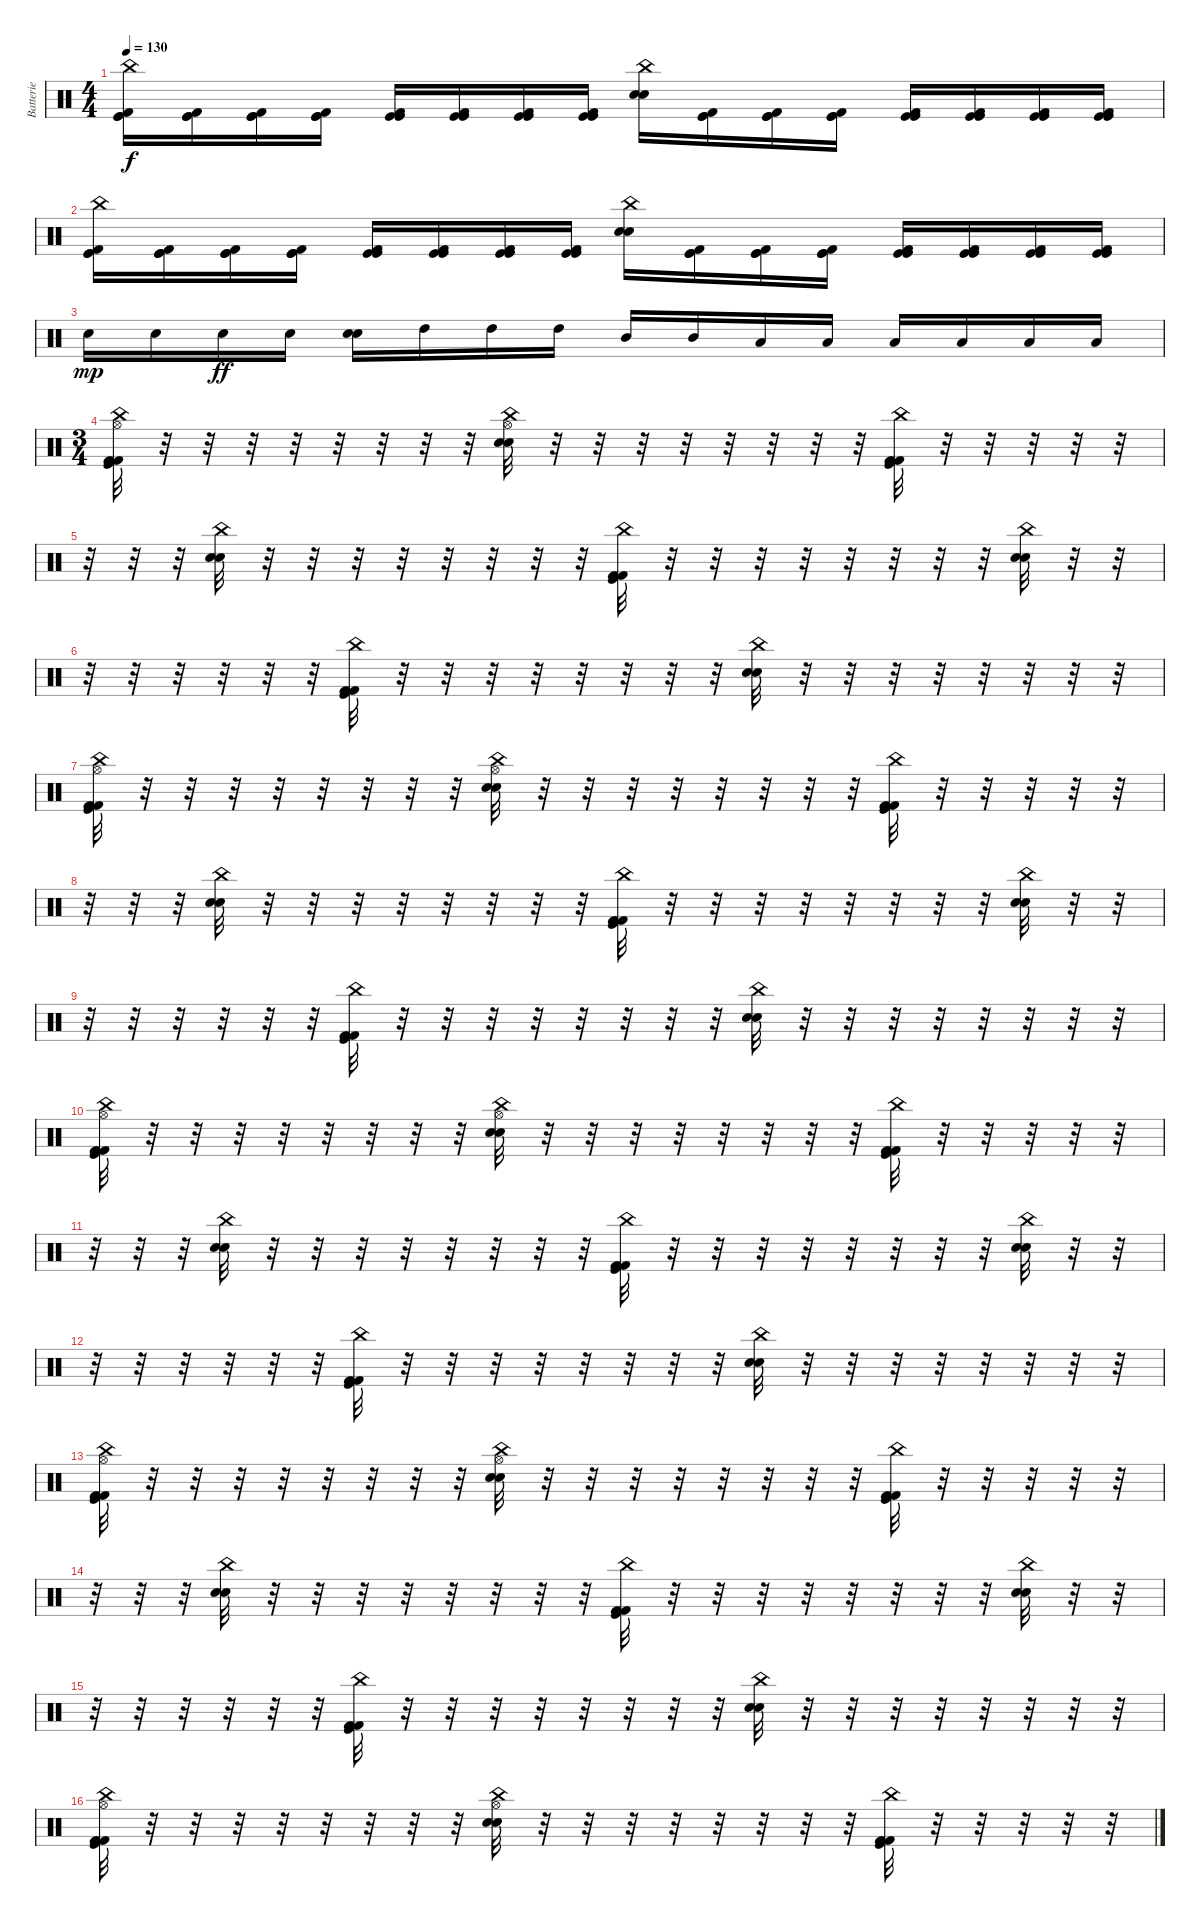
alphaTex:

\track ("Batterie" "Batterie") {instrument percussion}
\staff {score}
\articulation defaults
\ts (4 4)
\tempo 130
\clef neutral
\ks c
("China (hit)" "Kick (hit)" "Kick (hit) 2" "Kick (hit)").16{dy f} ("Kick (hit)" "Kick (hit)" "Kick (hit) 2").16 ("Kick (hit)" "Kick (hit) 2" "Kick (hit)").16 ("Kick (hit)" "Kick (hit)" "Kick (hit) 2").16 ("Kick (hit)" "Kick (hit) 2" "Kick (hit)").16 ("Kick (hit)" "Kick (hit)" "Kick (hit) 2").16 ("Kick (hit)" "Kick (hit) 2" "Kick (hit)").16 ("Kick (hit)" "Kick (hit)" "Kick (hit) 2").16 ("China (hit)" "Electric Snare (hit)" "Electric Snare (hit)").16 ("Kick (hit)" "Kick (hit)" "Kick (hit) 2").16 ("Kick (hit)" "Kick (hit) 2" "Kick (hit)").16 ("Kick (hit)" "Kick (hit)" "Kick (hit) 2").16 ("Kick (hit)" "Kick (hit) 2" "Kick (hit)").16 ("Kick (hit)" "Kick (hit)" "Kick (hit) 2").16 ("Kick (hit)" "Kick (hit) 2" "Kick (hit)").16 ("Kick (hit)" "Kick (hit) 2" "Kick (hit)").16 |
("China (hit)" "Kick (hit)" "Kick (hit) 2" "Kick (hit)").16 ("Kick (hit)" "Kick (hit)" "Kick (hit) 2").16 ("Kick (hit)" "Kick (hit) 2" "Kick (hit)").16 ("Kick (hit)" "Kick (hit)" "Kick (hit) 2").16 ("Kick (hit)" "Kick (hit) 2" "Kick (hit)").16 ("Kick (hit)" "Kick (hit)" "Kick (hit) 2").16 ("Kick (hit)" "Kick (hit) 2" "Kick (hit)").16 ("Kick (hit)" "Kick (hit)" "Kick (hit) 2").16 ("China (hit)" "Electric Snare (hit)" "Electric Snare (hit)").16 ("Kick (hit)" "Kick (hit)" "Kick (hit) 2").16 ("Kick (hit)" "Kick (hit) 2" "Kick (hit)").16 ("Kick (hit)" "Kick (hit)" "Kick (hit) 2").16 ("Kick (hit)" "Kick (hit) 2" "Kick (hit)").16 ("Kick (hit)" "Kick (hit)" "Kick (hit) 2").16 ("Kick (hit)" "Kick (hit) 2" "Kick (hit)").16 ("Kick (hit)" "Kick (hit) 2" "Kick (hit)").16 |
"Electric Snare (hit)".16{dy mp} "Electric Snare (hit)".16 "Electric Snare (hit)".16{dy ff} "Electric Snare (hit)".16 ("Electric Snare (hit)" "Electric Snare (hit)").16 "High Tom (hit)".16 "High Tom (hit)".16 "High Tom (hit)".16 "Mid Tom (hit)".16 "Mid Tom (hit)".16 "Low Tom (hit)".16 "Low Tom (hit)".16 "Low Floor Tom (hit)".16 "Low Floor Tom (hit)".16 "Low Floor Tom (hit)".16 "Low Floor Tom (hit)".16 |
\ts (3 4)
("China (hit)" "Hi-Hat (open)" "Kick (hit) 2" "Kick (hit)" "Kick (hit) 2").32 r.32 r.32 r.32 r.32 r.32 r.32 r.32 r.32 ("China (hit)" "Hi-Hat (open)" "Electric Snare (hit)" "Electric Snare (hit)").32 r.32 r.32 r.32 r.32 r.32 r.32 r.32 r.32 ("China (hit)" "Kick (hit) 2" "Kick (hit)" "Kick (hit) 2").32 r.32 r.32 r.32 r.32 r.32 |
r.32 r.32 r.32 ("China (hit)" "Electric Snare (hit)" "Electric Snare (hit)").32 r.32 r.32 r.32 r.32 r.32 r.32 r.32 r.32 ("China (hit)" "Kick (hit) 2" "Kick (hit)" "Kick (hit) 2").32 r.32 r.32 r.32 r.32 r.32 r.32 r.32 r.32 ("China (hit)" "Electric Snare (hit)" "Electric Snare (hit)").32 r.32 r.32 |
r.32 r.32 r.32 r.32 r.32 r.32 ("China (hit)" "Kick (hit) 2" "Kick (hit)" "Kick (hit) 2").32 r.32 r.32 r.32 r.32 r.32 r.32 r.32 r.32 ("China (hit)" "Electric Snare (hit)" "Electric Snare (hit)").32 r.32 r.32 r.32 r.32 r.32 r.32 r.32 r.32 |
("China (hit)" "Hi-Hat (open)" "Kick (hit) 2" "Kick (hit)" "Kick (hit) 2").32 r.32 r.32 r.32 r.32 r.32 r.32 r.32 r.32 ("China (hit)" "Hi-Hat (open)" "Electric Snare (hit)" "Electric Snare (hit)").32 r.32 r.32 r.32 r.32 r.32 r.32 r.32 r.32 ("China (hit)" "Kick (hit) 2" "Kick (hit)" "Kick (hit) 2").32 r.32 r.32 r.32 r.32 r.32 |
r.32 r.32 r.32 ("China (hit)" "Electric Snare (hit)" "Electric Snare (hit)").32 r.32 r.32 r.32 r.32 r.32 r.32 r.32 r.32 ("China (hit)" "Kick (hit) 2" "Kick (hit)" "Kick (hit) 2").32 r.32 r.32 r.32 r.32 r.32 r.32 r.32 r.32 ("China (hit)" "Electric Snare (hit)" "Electric Snare (hit)").32 r.32 r.32 |
r.32 r.32 r.32 r.32 r.32 r.32 ("China (hit)" "Kick (hit) 2" "Kick (hit)" "Kick (hit) 2").32 r.32 r.32 r.32 r.32 r.32 r.32 r.32 r.32 ("China (hit)" "Electric Snare (hit)" "Electric Snare (hit)").32 r.32 r.32 r.32 r.32 r.32 r.32 r.32 r.32 |
("China (hit)" "Hi-Hat (open)" "Kick (hit) 2" "Kick (hit)" "Kick (hit) 2").32 r.32 r.32 r.32 r.32 r.32 r.32 r.32 r.32 ("China (hit)" "Hi-Hat (open)" "Electric Snare (hit)" "Electric Snare (hit)").32 r.32 r.32 r.32 r.32 r.32 r.32 r.32 r.32 ("China (hit)" "Kick (hit) 2" "Kick (hit)" "Kick (hit) 2").32 r.32 r.32 r.32 r.32 r.32 |
r.32 r.32 r.32 ("China (hit)" "Electric Snare (hit)" "Electric Snare (hit)").32 r.32 r.32 r.32 r.32 r.32 r.32 r.32 r.32 ("China (hit)" "Kick (hit) 2" "Kick (hit)" "Kick (hit) 2").32 r.32 r.32 r.32 r.32 r.32 r.32 r.32 r.32 ("China (hit)" "Electric Snare (hit)" "Electric Snare (hit)").32 r.32 r.32 |
r.32 r.32 r.32 r.32 r.32 r.32 ("China (hit)" "Kick (hit) 2" "Kick (hit)" "Kick (hit) 2").32 r.32 r.32 r.32 r.32 r.32 r.32 r.32 r.32 ("China (hit)" "Electric Snare (hit)" "Electric Snare (hit)").32 r.32 r.32 r.32 r.32 r.32 r.32 r.32 r.32 |
("China (hit)" "Hi-Hat (open)" "Kick (hit) 2" "Kick (hit)" "Kick (hit) 2").32 r.32 r.32 r.32 r.32 r.32 r.32 r.32 r.32 ("China (hit)" "Hi-Hat (open)" "Electric Snare (hit)" "Electric Snare (hit)").32 r.32 r.32 r.32 r.32 r.32 r.32 r.32 r.32 ("China (hit)" "Kick (hit) 2" "Kick (hit)" "Kick (hit) 2").32 r.32 r.32 r.32 r.32 r.32 |
r.32 r.32 r.32 ("China (hit)" "Electric Snare (hit)" "Electric Snare (hit)").32 r.32 r.32 r.32 r.32 r.32 r.32 r.32 r.32 ("China (hit)" "Kick (hit) 2" "Kick (hit)" "Kick (hit) 2").32 r.32 r.32 r.32 r.32 r.32 r.32 r.32 r.32 ("China (hit)" "Electric Snare (hit)" "Electric Snare (hit)").32 r.32 r.32 |
r.32 r.32 r.32 r.32 r.32 r.32 ("China (hit)" "Kick (hit) 2" "Kick (hit)" "Kick (hit) 2").32 r.32 r.32 r.32 r.32 r.32 r.32 r.32 r.32 ("China (hit)" "Electric Snare (hit)" "Electric Snare (hit)").32 r.32 r.32 r.32 r.32 r.32 r.32 r.32 r.32 |
("China (hit)" "Hi-Hat (open)" "Kick (hit) 2" "Kick (hit)" "Kick (hit) 2").32 r.32 r.32 r.32 r.32 r.32 r.32 r.32 r.32 ("China (hit)" "Hi-Hat (open)" "Electric Snare (hit)" "Electric Snare (hit)").32 r.32 r.32 r.32 r.32 r.32 r.32 r.32 r.32 ("China (hit)" "Kick (hit) 2" "Kick (hit)" "Kick (hit) 2").32 r.32 r.32 r.32 r.32 r.32
